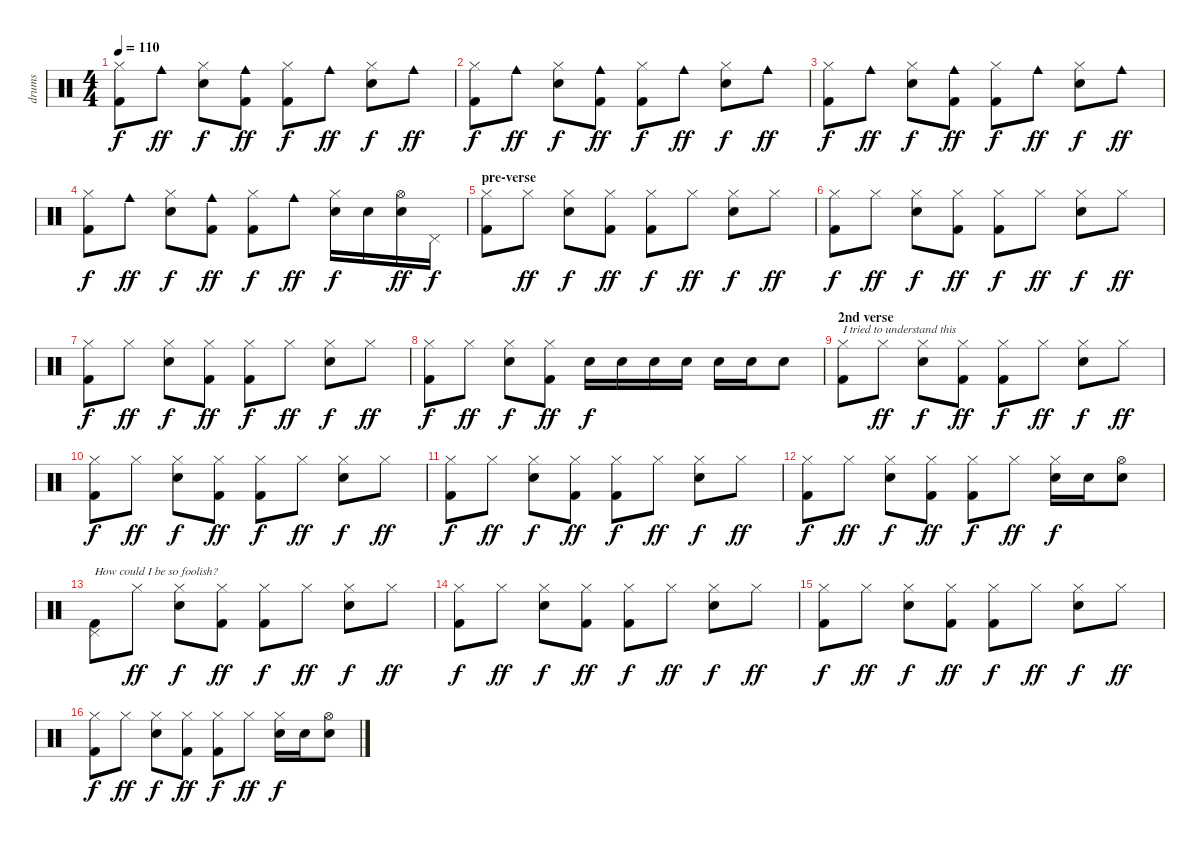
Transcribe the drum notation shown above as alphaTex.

\track ("drums" "drums") {instrument percussion}
\staff {score}
\articulation defaults
\ts (4 4)
\tempo 110
\clef neutral
\ks aminor
("Hi-Hat (closed)" "Kick (hit) 2").8{dy f} "Cowbell medium (hit)".8{dy ff} ("Hi-Hat (closed)" "Snare (hit) 2").8{dy f} ("Cowbell medium (hit)" "Kick (hit) 2").8{dy ff} ("Hi-Hat (closed)" "Kick (hit) 2").8{dy f} "Cowbell medium (hit)".8{dy ff} ("Hi-Hat (closed)" "Snare (hit) 2").8{dy f} "Cowbell medium (hit)".8{dy ff} |
("Hi-Hat (closed)" "Kick (hit) 2").8{dy f} "Cowbell medium (hit)".8{dy ff} ("Hi-Hat (closed)" "Snare (hit) 2").8{dy f} ("Cowbell medium (hit)" "Kick (hit) 2").8{dy ff} ("Hi-Hat (closed)" "Kick (hit) 2").8{dy f} "Cowbell medium (hit)".8{dy ff} ("Hi-Hat (closed)" "Snare (hit) 2").8{dy f} "Cowbell medium (hit)".8{dy ff} |
("Hi-Hat (closed)" "Kick (hit) 2").8{dy f} "Cowbell medium (hit)".8{dy ff} ("Hi-Hat (closed)" "Snare (hit) 2").8{dy f} ("Cowbell medium (hit)" "Kick (hit) 2").8{dy ff} ("Hi-Hat (closed)" "Kick (hit) 2").8{dy f} "Cowbell medium (hit)".8{dy ff} ("Hi-Hat (closed)" "Snare (hit) 2").8{dy f} "Cowbell medium (hit)".8{dy ff} |
("Hi-Hat (closed)" "Kick (hit) 2").8{dy f} "Cowbell medium (hit)".8{dy ff} ("Hi-Hat (closed)" "Snare (hit) 2").8{dy f} ("Cowbell medium (hit)" "Kick (hit) 2").8{dy ff} ("Hi-Hat (closed)" "Kick (hit) 2").8{dy f} "Cowbell medium (hit)".8{dy ff} ("Hi-Hat (closed)" "Snare (hit) 2").16{dy f} "Snare (hit) 2".16 ("Hi-Hat (open)" "Snare (hit) 2").16{dy ff} "Pedal Hi-Hat (hit)".16{dy f} |
\section ("" "pre-verse")
("Hi-Hat (closed)" "Kick (hit) 2").8 "Hi-Hat (closed)".8{dy ff} ("Hi-Hat (closed)" "Snare (hit) 2").8{dy f} ("Hi-Hat (closed)" "Kick (hit) 2").8{dy ff} ("Hi-Hat (closed)" "Kick (hit) 2").8{dy f} "Hi-Hat (closed)".8{dy ff} ("Hi-Hat (closed)" "Snare (hit) 2").8{dy f} "Hi-Hat (closed)".8{dy ff} |
("Hi-Hat (closed)" "Kick (hit) 2").8{dy f} "Hi-Hat (closed)".8{dy ff} ("Hi-Hat (closed)" "Snare (hit) 2").8{dy f} ("Hi-Hat (closed)" "Kick (hit) 2").8{dy ff} ("Hi-Hat (closed)" "Kick (hit) 2").8{dy f} "Hi-Hat (closed)".8{dy ff} ("Hi-Hat (closed)" "Snare (hit) 2").8{dy f} "Hi-Hat (closed)".8{dy ff} |
("Hi-Hat (closed)" "Kick (hit) 2").8{dy f} "Hi-Hat (closed)".8{dy ff} ("Hi-Hat (closed)" "Snare (hit) 2").8{dy f} ("Hi-Hat (closed)" "Kick (hit) 2").8{dy ff} ("Hi-Hat (closed)" "Kick (hit) 2").8{dy f} "Hi-Hat (closed)".8{dy ff} ("Hi-Hat (closed)" "Snare (hit) 2").8{dy f} "Hi-Hat (closed)".8{dy ff} |
("Hi-Hat (closed)" "Kick (hit) 2").8{dy f} "Hi-Hat (closed)".8{dy ff} ("Hi-Hat (closed)" "Snare (hit) 2").8{dy f} ("Hi-Hat (closed)" "Kick (hit) 2").8{dy ff} "Snare (hit) 2".16{dy f} "Snare (hit) 2".16 "Snare (hit) 2".16 "Snare (hit) 2".16 "Snare (hit) 2".16 "Snare (hit) 2".16 "Snare (hit) 2".8 |
\section ("" "2nd verse")
("Hi-Hat (closed)" "Kick (hit) 2").8{txt "I tried to understand this"} "Hi-Hat (closed)".8{dy ff} ("Hi-Hat (closed)" "Snare (hit) 2").8{dy f} ("Hi-Hat (closed)" "Kick (hit) 2").8{dy ff} ("Hi-Hat (closed)" "Kick (hit) 2").8{dy f} "Hi-Hat (closed)".8{dy ff} ("Hi-Hat (closed)" "Snare (hit) 2").8{dy f} "Hi-Hat (closed)".8{dy ff} |
("Hi-Hat (closed)" "Kick (hit) 2").8{dy f} "Hi-Hat (closed)".8{dy ff} ("Hi-Hat (closed)" "Snare (hit) 2").8{dy f} ("Hi-Hat (closed)" "Kick (hit) 2").8{dy ff} ("Hi-Hat (closed)" "Kick (hit) 2").8{dy f} "Hi-Hat (closed)".8{dy ff} ("Hi-Hat (closed)" "Snare (hit) 2").8{dy f} "Hi-Hat (closed)".8{dy ff} |
("Hi-Hat (closed)" "Kick (hit) 2").8{dy f} "Hi-Hat (closed)".8{dy ff} ("Hi-Hat (closed)" "Snare (hit) 2").8{dy f} ("Hi-Hat (closed)" "Kick (hit) 2").8{dy ff} ("Hi-Hat (closed)" "Kick (hit) 2").8{dy f} "Hi-Hat (closed)".8{dy ff} ("Hi-Hat (closed)" "Snare (hit) 2").8{dy f} "Hi-Hat (closed)".8{dy ff} |
("Hi-Hat (closed)" "Kick (hit) 2").8{dy f} "Hi-Hat (closed)".8{dy ff} ("Hi-Hat (closed)" "Snare (hit) 2").8{dy f} ("Hi-Hat (closed)" "Kick (hit) 2").8{dy ff} ("Hi-Hat (closed)" "Kick (hit) 2").8{dy f} "Hi-Hat (closed)".8{dy ff} ("Hi-Hat (closed)" "Snare (hit) 2").16{dy f} "Snare (hit) 2".16 ("Hi-Hat (open)" "Snare (hit) 2").8 |
("Pedal Hi-Hat (hit)" "Kick (hit) 2").8{txt "How could I be so foolish?"} "Hi-Hat (closed)".8{dy ff} ("Hi-Hat (closed)" "Snare (hit) 2").8{dy f} ("Hi-Hat (closed)" "Kick (hit) 2").8{dy ff} ("Hi-Hat (closed)" "Kick (hit) 2").8{dy f} "Hi-Hat (closed)".8{dy ff} ("Hi-Hat (closed)" "Snare (hit) 2").8{dy f} "Hi-Hat (closed)".8{dy ff} |
("Hi-Hat (closed)" "Kick (hit) 2").8{dy f} "Hi-Hat (closed)".8{dy ff} ("Hi-Hat (closed)" "Snare (hit) 2").8{dy f} ("Hi-Hat (closed)" "Kick (hit) 2").8{dy ff} ("Hi-Hat (closed)" "Kick (hit) 2").8{dy f} "Hi-Hat (closed)".8{dy ff} ("Hi-Hat (closed)" "Snare (hit) 2").8{dy f} "Hi-Hat (closed)".8{dy ff} |
("Hi-Hat (closed)" "Kick (hit) 2").8{dy f} "Hi-Hat (closed)".8{dy ff} ("Hi-Hat (closed)" "Snare (hit) 2").8{dy f} ("Hi-Hat (closed)" "Kick (hit) 2").8{dy ff} ("Hi-Hat (closed)" "Kick (hit) 2").8{dy f} "Hi-Hat (closed)".8{dy ff} ("Hi-Hat (closed)" "Snare (hit) 2").8{dy f} "Hi-Hat (closed)".8{dy ff} |
("Hi-Hat (closed)" "Kick (hit) 2").8{dy f} "Hi-Hat (closed)".8{dy ff} ("Hi-Hat (closed)" "Snare (hit) 2").8{dy f} ("Hi-Hat (closed)" "Kick (hit) 2").8{dy ff} ("Hi-Hat (closed)" "Kick (hit) 2").8{dy f} "Hi-Hat (closed)".8{dy ff} ("Hi-Hat (closed)" "Snare (hit) 2").16{dy f} "Snare (hit) 2".16 ("Hi-Hat (open)" "Snare (hit) 2").8
